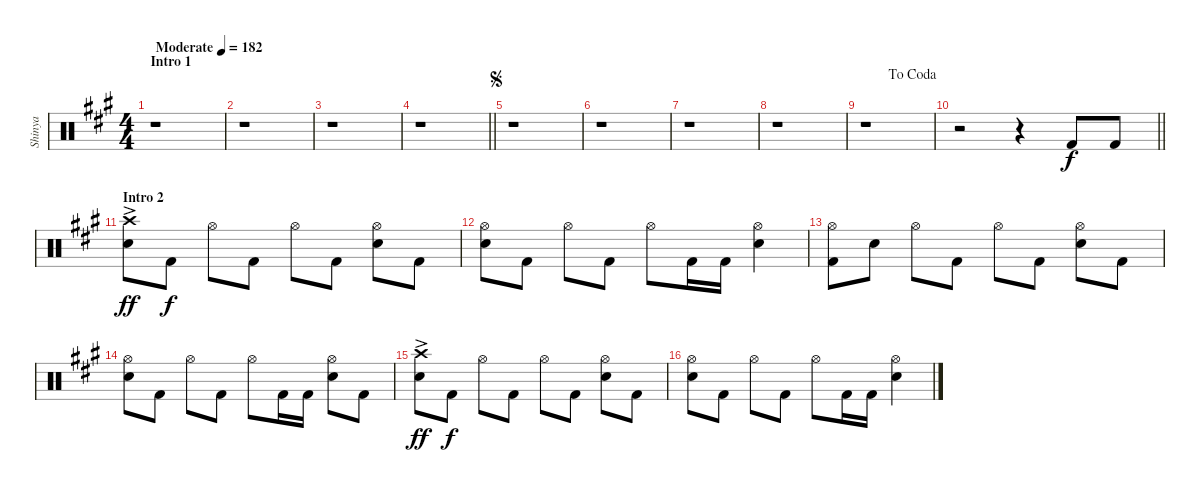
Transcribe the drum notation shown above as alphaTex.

\track ("Shinya" "Shinya") {instrument percussion}
\staff {score}
\articulation defaults
\ts (4 4)
\section ("" "Intro 1")
\tempo (182 "Moderate")
\clef neutral
\ks a
r.1{dy f} |
r.1 |
r.1 |
\barLineRight lightlight
r.1 |
\jump segno
r.1 |
r.1 |
r.1 |
r.1 |
\jump dacoda
r.1 |
\barLineRight lightlight
r.2 r.4 "Kick (hit) 2".8 "Kick (hit) 2".8 |
\section ("" "Intro 2")
("Crash high (hit)"{ac} "Snare (hit) 2").8{dy ff} "Kick (hit) 2".8{dy f} "Hi-Hat (open)".8 "Kick (hit) 2".8 "Hi-Hat (open)".8 "Kick (hit) 2".8 ("Hi-Hat (open)" "Snare (hit) 2").8 "Kick (hit) 2".8 |
("Hi-Hat (open)" "Snare (hit) 2").8 "Kick (hit) 2".8 "Hi-Hat (open)".8 "Kick (hit) 2".8 "Hi-Hat (open)".8 "Kick (hit) 2".16 "Kick (hit) 2".16 ("Hi-Hat (open)" "Snare (hit) 2").4 |
("Hi-Hat (open)" "Kick (hit) 2").8 "Snare (hit) 2".8 "Hi-Hat (open)".8 "Kick (hit) 2".8 "Hi-Hat (open)".8 "Kick (hit) 2".8 ("Hi-Hat (open)" "Snare (hit) 2").8 "Kick (hit) 2".8 |
("Hi-Hat (open)" "Snare (hit) 2").8 "Kick (hit) 2".8 "Hi-Hat (open)".8 "Kick (hit) 2".8 "Hi-Hat (open)".8 "Kick (hit) 2".16 "Kick (hit) 2".16 ("Hi-Hat (open)" "Snare (hit) 2").8 "Kick (hit) 2".8 |
("Crash high (hit)"{ac} "Snare (hit) 2").8{dy ff} "Kick (hit) 2".8{dy f} "Hi-Hat (open)".8 "Kick (hit) 2".8 "Hi-Hat (open)".8 "Kick (hit) 2".8 ("Hi-Hat (open)" "Snare (hit) 2").8 "Kick (hit) 2".8 |
("Hi-Hat (open)" "Snare (hit) 2").8 "Kick (hit) 2".8 "Hi-Hat (open)".8 "Kick (hit) 2".8 "Hi-Hat (open)".8 "Kick (hit) 2".16 "Kick (hit) 2".16 ("Hi-Hat (open)" "Snare (hit) 2").4
